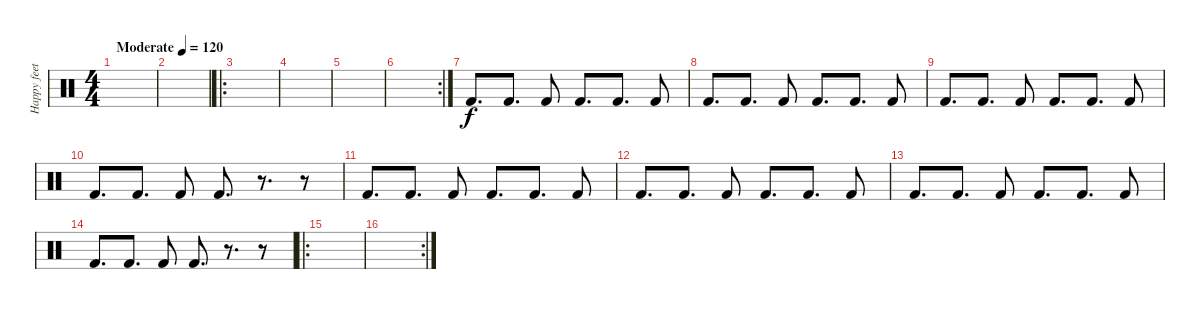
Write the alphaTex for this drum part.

\track ("Happy feet" "Happy feet") {instrument percussion}
\staff {score}
\articulation defaults
\ts (4 4)
\tempo (120 "Moderate")
\clef neutral
\ks c
|
|
\ro
|
|
|
\rc 2
|
"Kick (hit) 2".8{d} "Kick (hit) 2".8{d} "Kick (hit) 2".8 "Kick (hit) 2".8{d} "Kick (hit) 2".8{d} "Kick (hit) 2".8 |
"Kick (hit) 2".8{d} "Kick (hit) 2".8{d} "Kick (hit) 2".8 "Kick (hit) 2".8{d} "Kick (hit) 2".8{d} "Kick (hit) 2".8 |
"Kick (hit) 2".8{d} "Kick (hit) 2".8{d} "Kick (hit) 2".8 "Kick (hit) 2".8{d} "Kick (hit) 2".8{d} "Kick (hit) 2".8 |
"Kick (hit) 2".8{d} "Kick (hit) 2".8{d} "Kick (hit) 2".8 "Kick (hit) 2".8{d} r.8{d} r.8 |
"Kick (hit) 2".8{d} "Kick (hit) 2".8{d} "Kick (hit) 2".8 "Kick (hit) 2".8{d} "Kick (hit) 2".8{d} "Kick (hit) 2".8 |
"Kick (hit) 2".8{d} "Kick (hit) 2".8{d} "Kick (hit) 2".8 "Kick (hit) 2".8{d} "Kick (hit) 2".8{d} "Kick (hit) 2".8 |
"Kick (hit) 2".8{d} "Kick (hit) 2".8{d} "Kick (hit) 2".8 "Kick (hit) 2".8{d} "Kick (hit) 2".8{d} "Kick (hit) 2".8 |
"Kick (hit) 2".8{d} "Kick (hit) 2".8{d} "Kick (hit) 2".8 "Kick (hit) 2".8{d} r.8{d} r.8 |
\ro
|
\rc 2
